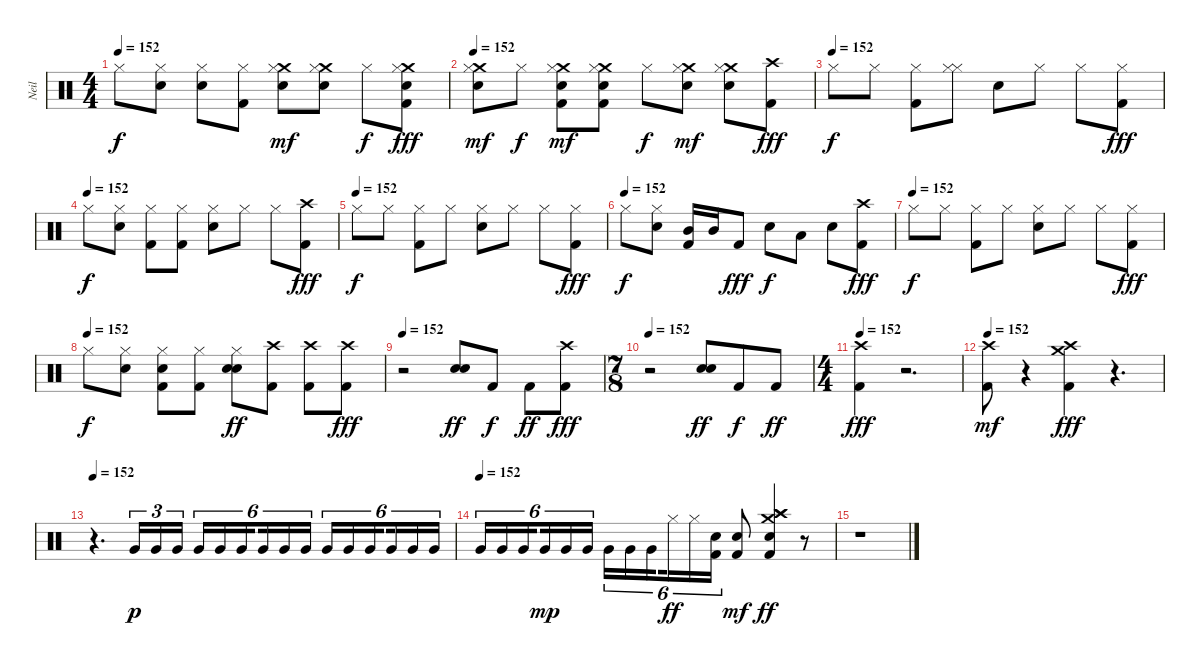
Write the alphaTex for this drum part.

\track ("Neil" "Neil") {instrument percussion}
\staff {score}
\articulation defaults
\ts (4 4)
\tempo 152
\clef neutral
\ks c "Hi-Hat (closed)".8{dy f}
("Snare (hit) 2" "Hi-Hat (closed)").8 ("Snare (hit) 2" "Hi-Hat (closed)").8 ("Kick (hit) 2" "Hi-Hat (closed)").8 ("Crash medium (hit)" "Hi-Hat (closed)" "Snare (hit) 2").8{dy mf} ("Crash medium (hit)" "Snare (hit) 2" "Hi-Hat (closed)").8 "Hi-Hat (closed)".8{dy f} ("Crash medium (hit)" "Snare (hit) 2" "Hi-Hat (closed)" "Kick (hit) 2").8{dy fff} |
\tempo 152
("Crash medium (hit)" "Snare (hit) 2" "Hi-Hat (closed)").8{dy mf} "Hi-Hat (closed)".8{dy f} ("Crash medium (hit)" "Snare (hit) 2" "Hi-Hat (closed)" "Kick (hit) 2").8{dy mf} ("Crash medium (hit)" "Snare (hit) 2" "Hi-Hat (closed)" "Kick (hit) 2").8 "Hi-Hat (closed)".8{dy f} ("Crash medium (hit)" "Snare (hit) 2" "Hi-Hat (closed)").8{dy mf} ("Crash medium (hit)" "Snare (hit) 2" "Hi-Hat (closed)").8 ("Crash high (hit)" "Kick (hit) 2").8{dy fff} |
\tempo (152)
"Hi-Hat (closed)".8{dy f} "Hi-Hat (closed)".8 ("Hi-Hat (closed)" "Kick (hit) 2").8 ("Hi-Hat (closed)" "Hi-Hat (closed)").8 "Snare (hit) 2".8 "Hi-Hat (closed)".8 "Hi-Hat (closed)".8 ("Hi-Hat (closed)" "Kick (hit) 2").8{dy fff} |
\tempo (152)
"Hi-Hat (closed)".8{dy f} ("Hi-Hat (closed)" "Snare (hit) 2").8 ("Hi-Hat (closed)" "Kick (hit) 2").8 ("Hi-Hat (closed)" "Kick (hit) 2").8 ("Hi-Hat (closed)" "Snare (hit) 2").8 "Hi-Hat (closed)".8 "Hi-Hat (closed)".8 ("Crash high (hit)" "Kick (hit) 2").8{dy fff} |
\tempo (152)
"Hi-Hat (closed)".8{dy f} "Hi-Hat (closed)".8 ("Hi-Hat (closed)" "Kick (hit) 2").8 "Hi-Hat (closed)".8 ("Hi-Hat (closed)" "Snare (hit) 2").8 "Hi-Hat (closed)".8 "Hi-Hat (closed)".8 ("Hi-Hat (closed)" "Kick (hit) 2").8{dy fff} |
\tempo (152)
"Hi-Hat (closed)".8{dy f} ("Hi-Hat (closed)" "Snare (hit) 2").8 ("Mid Tom (hit)" "Kick (hit) 2").16 "Mid Tom (hit)".16 "Kick (hit) 2".8{dy fff} "Snare (hit) 2".8{dy f} "Low Tom (hit)".8 "Snare (hit) 2".8 ("Crash high (hit)" "Kick (hit) 2").8{dy fff} |
\tempo (152)
"Hi-Hat (closed)".8{dy f} "Hi-Hat (closed)".8 ("Hi-Hat (closed)" "Kick (hit) 2").8 "Hi-Hat (closed)".8 ("Hi-Hat (closed)" "Snare (hit) 2").8 "Hi-Hat (closed)".8 "Hi-Hat (closed)".8 ("Hi-Hat (closed)" "Kick (hit) 2").8{dy fff} |
\tempo (152)
"Hi-Hat (closed)".8{dy f} ("Hi-Hat (closed)" "Snare (hit) 2").8 ("Snare (hit) 2" "Hi-Hat (closed)" "Kick (hit) 2").8 ("Hi-Hat (closed)" "Kick (hit) 2").8 ("Snare (hit) 2" "Hi-Hat (closed)" "Snare (hit) 2").8{dy ff} ("Crash high (hit)" "Kick (hit) 2").8 ("Crash high (hit)" "Kick (hit) 2").8 ("Crash high (hit)" "Kick (hit) 2").8{dy fff} |
\tempo 152
r.2 ("Snare (hit) 2" "Snare (hit) 2").8{dy ff} "Kick (hit) 2".8{dy f} "Kick (hit) 2".8{dy ff} ("Crash high (hit)" "Kick (hit) 2").8{dy fff} |
\ts (7 8)
\tempo 152
r.2 ("Snare (hit) 2" "Snare (hit) 2").8{dy ff} "Kick (hit) 2".8{dy f} "Kick (hit) 2".8{dy ff} |
\ts (4 4)
\tempo 152
("Crash high (hit)" "Kick (hit) 2").4{dy fff} r.2{d} |
\tempo 152
("Crash high (hit)" "Kick (hit) 2").8{dy mf} r.4 ("Kick (hit) 2" "Crash medium (hit)" "Crash high (hit)").4{dy fff} r.4{d} |
\tempo 152
r.4{d} "Very Low Tom (hit)".16{tu (3 2) dy p} "Very Low Tom (hit)".16{tu (3 2)} "Very Low Tom (hit)".16{tu (3 2)} "Very Low Tom (hit)".16{tu (6 4)} "Very Low Tom (hit)".16{tu (6 4)} "Very Low Tom (hit)".16{tu (6 4) beam splitsecondary} "Very Low Tom (hit)".16{tu (6 4)} "Very Low Tom (hit)".16{tu (6 4)} "Very Low Tom (hit)".16{tu (6 4)} "Very Low Tom (hit)".16{tu (6 4)} "Very Low Tom (hit)".16{tu (6 4)} "Very Low Tom (hit)".16{tu (6 4) beam splitsecondary} "Very Low Tom (hit)".16{tu (6 4)} "Very Low Tom (hit)".16{tu (6 4)} "Very Low Tom (hit)".16{tu (6 4)} |
\tempo (152)
"Very Low Tom (hit)".16{tu (6 4)} "Very Low Tom (hit)".16{tu (6 4)} "Very Low Tom (hit)".16{tu (6 4) beam splitsecondary} "Very Low Tom (hit)".16{tu (6 4) dy mp} "Very Low Tom (hit)".16{tu (6 4)} "Very Low Tom (hit)".16{tu (6 4)} "Very Low Tom (hit)".16{tu (6 4)} "Very Low Tom (hit)".16{tu (6 4)} "Very Low Tom (hit)".16{tu (6 4) beam splitsecondary} "Hi-Hat (closed)".16{tu (6 4) dy ff} "Hi-Hat (closed)".16{tu (6 4)} ("Electric Snare (hit)" "Kick (hit) 2").16{tu (6 4)} ("Kick (hit) 2" "Electric Snare (hit)").8{dy mf} ("Crash high (hit)" "Crash medium (hit)" "Kick (hit) 2" "Electric Snare (hit)" "Crash high (hit)").4{dy ff} r.8 |
r.1
